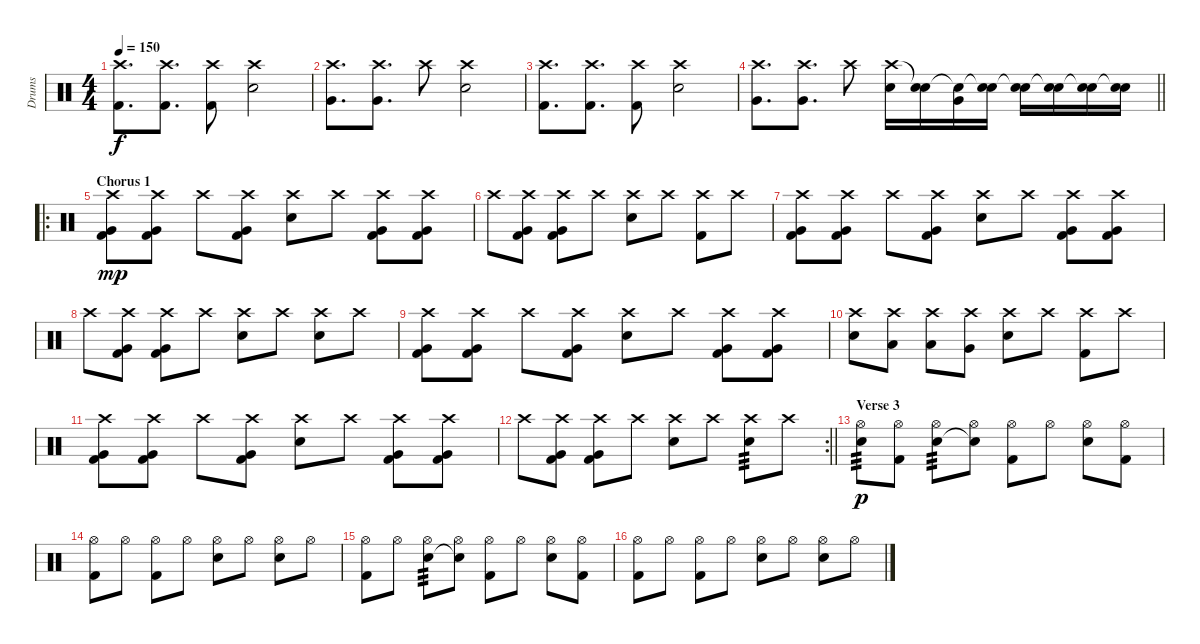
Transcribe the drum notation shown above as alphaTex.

\track ("Drums" "Drums") {instrument percussion}
\staff {score}
\articulation defaults
\ts (4 4)
\tempo 150
\clef neutral
\ks c
("Crash high (hit)" "Kick (hit) 2").8{d dy f} ("Crash high (hit)" "Kick (hit) 2").8{d} ("Crash high (hit)" "Kick (hit) 2").8 ("Crash high (hit)" "Electric Snare (hit)").2 |
("Crash high (hit)" "Very Low Tom (hit)").8{d} ("Crash high (hit)" "Very Low Tom (hit)").8{d} "Crash high (hit)".8 ("Crash high (hit)" "Electric Snare (hit)").2 |
("Crash high (hit)" "Kick (hit) 2").8{d} ("Crash high (hit)" "Kick (hit) 2").8{d} ("Crash high (hit)" "Kick (hit) 2").8 ("Crash high (hit)" "Electric Snare (hit)").2 |
\barLineRight lightlight
("Crash high (hit)" "Very Low Tom (hit)").8{d} ("Crash high (hit)" "Very Low Tom (hit)").8{d} "Crash high (hit)".8 ("Crash high (hit)" "Electric Snare (hit)").16 ("Snare (hit)"{t} "Electric Snare (hit)").16 ("Snare (hit)"{t} "Very Low Tom (hit)").16 ("Snare (hit)"{t} "Electric Snare (hit)").16 ("Snare (hit)"{t} "Electric Snare (hit)").16 ("Snare (hit)"{t} "Electric Snare (hit)").16 ("Snare (hit)"{t} "Electric Snare (hit)").16 ("Snare (hit)"{t} "Electric Snare (hit)").16 |
\ro
\section ("" "Chorus 1")
("Crash high (hit)" "Very Low Tom (hit)" "Kick (hit) 2").8{dy mp} ("Crash high (hit)" "Very Low Tom (hit)" "Kick (hit) 2").8 "Crash high (hit)".8 ("Crash high (hit)" "Very Low Tom (hit)" "Kick (hit) 2").8 ("Crash high (hit)" "Electric Snare (hit)").8 "Crash high (hit)".8 ("Crash high (hit)" "Very Low Tom (hit)" "Kick (hit) 2").8 ("Crash high (hit)" "Very Low Tom (hit)" "Kick (hit) 2").8 |
"Crash high (hit)".8 ("Crash high (hit)" "Very Low Tom (hit)" "Kick (hit) 2").8 ("Crash high (hit)" "Very Low Tom (hit)" "Kick (hit) 2").8 "Crash high (hit)".8 ("Crash high (hit)" "Electric Snare (hit)").8 "Crash high (hit)".8 ("Crash high (hit)" "Kick (hit) 2").8 "Crash high (hit)".8 |
("Crash high (hit)" "Very Low Tom (hit)" "Kick (hit) 2").8 ("Crash high (hit)" "Very Low Tom (hit)" "Kick (hit) 2").8 "Crash high (hit)".8 ("Crash high (hit)" "Very Low Tom (hit)" "Kick (hit) 2").8 ("Crash high (hit)" "Electric Snare (hit)").8 "Crash high (hit)".8 ("Crash high (hit)" "Very Low Tom (hit)" "Kick (hit) 2").8 ("Crash high (hit)" "Very Low Tom (hit)" "Kick (hit) 2").8 |
"Crash high (hit)".8 ("Crash high (hit)" "Very Low Tom (hit)" "Kick (hit) 2").8 ("Crash high (hit)" "Very Low Tom (hit)" "Kick (hit) 2").8 "Crash high (hit)".8 ("Crash high (hit)" "Electric Snare (hit)").8 "Crash high (hit)".8 ("Crash high (hit)" "Electric Snare (hit)").8 "Crash high (hit)".8 |
("Crash high (hit)" "Very Low Tom (hit)" "Kick (hit) 2").8 ("Crash high (hit)" "Very Low Tom (hit)" "Kick (hit) 2").8 "Crash high (hit)".8 ("Crash high (hit)" "Very Low Tom (hit)" "Kick (hit) 2").8 ("Crash high (hit)" "Electric Snare (hit)").8 "Crash high (hit)".8 ("Crash high (hit)" "Very Low Tom (hit)" "Kick (hit) 2").8 ("Crash high (hit)" "Very Low Tom (hit)" "Kick (hit) 2").8 |
("Crash high (hit)" "Electric Snare (hit)").8 ("Crash high (hit)" "Low Tom (hit)").8 ("Crash high (hit)" "Low Tom (hit)").8 ("Crash high (hit)" "Very Low Tom (hit)").8 ("Crash high (hit)" "Electric Snare (hit)").8 "Crash high (hit)".8 ("Crash high (hit)" "Kick (hit) 2").8 "Crash high (hit)".8 |
("Crash high (hit)" "Very Low Tom (hit)" "Kick (hit) 2").8 ("Crash high (hit)" "Very Low Tom (hit)" "Kick (hit) 2").8 "Crash high (hit)".8 ("Crash high (hit)" "Very Low Tom (hit)" "Kick (hit) 2").8 ("Crash high (hit)" "Electric Snare (hit)").8 "Crash high (hit)".8 ("Crash high (hit)" "Very Low Tom (hit)" "Kick (hit) 2").8 ("Crash high (hit)" "Very Low Tom (hit)" "Kick (hit) 2").8 |
\rc 2
\barLineRight lightlight "Crash high (hit)".8
("Crash high (hit)" "Very Low Tom (hit)" "Kick (hit) 2").8 ("Crash high (hit)" "Very Low Tom (hit)" "Kick (hit) 2").8 "Crash high (hit)".8 ("Crash high (hit)" "Electric Snare (hit)").8 "Crash high (hit)".8 ("Crash high (hit)" "Electric Snare (hit)").8{tp 3} "Crash high (hit)".8 |
\section ("" "Verse 3")
("Hi-Hat (open)" "Electric Snare (hit)").8{tp 3 dy p} ("Hi-Hat (open)" "Kick (hit) 2").8 ("Hi-Hat (open)" "Electric Snare (hit)").8{tp 3} ("Hi-Hat (open)" "Electric Snare (hit)"{t}).8 ("Hi-Hat (open)" "Kick (hit) 2").8 "Hi-Hat (open)".8 ("Hi-Hat (open)" "Electric Snare (hit)").8 ("Hi-Hat (open)" "Kick (hit) 2").8 |
("Hi-Hat (open)" "Kick (hit) 2").8 "Hi-Hat (open)".8 ("Hi-Hat (open)" "Kick (hit) 2").8 "Hi-Hat (open)".8 ("Hi-Hat (open)" "Electric Snare (hit)").8 "Hi-Hat (open)".8 ("Hi-Hat (open)" "Electric Snare (hit)").8 "Hi-Hat (open)".8 |
("Hi-Hat (open)" "Kick (hit) 2").8 "Hi-Hat (open)".8 ("Hi-Hat (open)" "Electric Snare (hit)").8{tp 3} ("Hi-Hat (open)" "Electric Snare (hit)"{t}).8 ("Hi-Hat (open)" "Kick (hit) 2").8 "Hi-Hat (open)".8 ("Hi-Hat (open)" "Electric Snare (hit)").8 ("Hi-Hat (open)" "Kick (hit) 2").8 |
("Hi-Hat (open)" "Kick (hit) 2").8 "Hi-Hat (open)".8 ("Hi-Hat (open)" "Kick (hit) 2").8 "Hi-Hat (open)".8 ("Hi-Hat (open)" "Electric Snare (hit)").8 "Hi-Hat (open)".8 ("Hi-Hat (open)" "Electric Snare (hit)").8 "Hi-Hat (open)".8
